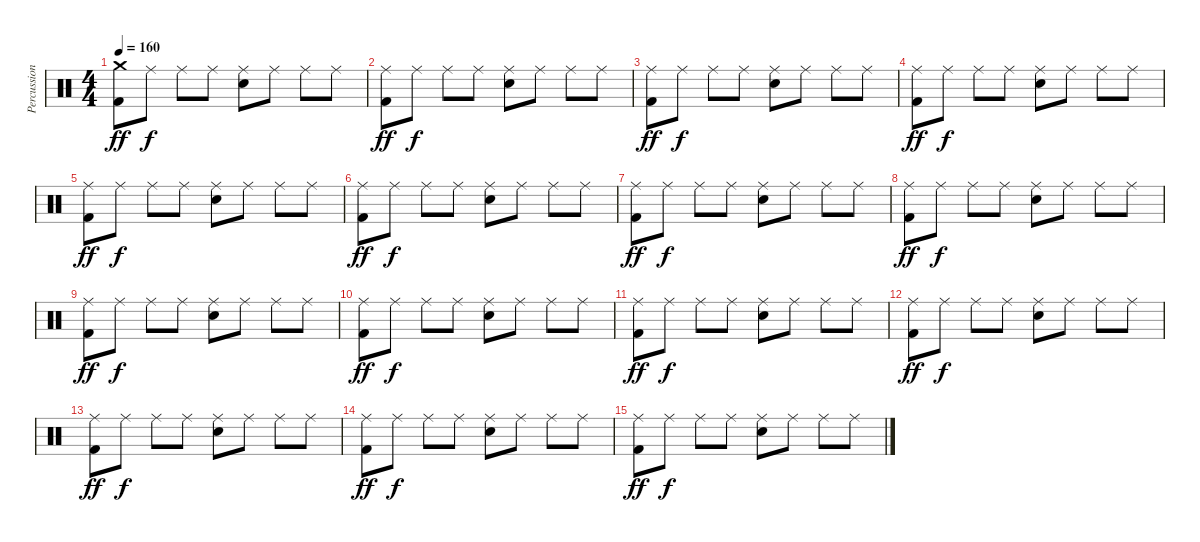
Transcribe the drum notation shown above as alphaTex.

\track ("Percussions" "Percussion") {instrument percussion}
\staff {score}
\articulation defaults
\ts (4 4)
\tempo 160
\clef neutral
\ks c
("Crash medium (hit)" "Kick (hit) 2").8{dy ff} "Ride (middle)".8{dy f} "Ride (middle)".8 "Ride (middle)".8 ("Ride (middle)" "Snare (hit) 2").8 "Ride (middle)".8 "Ride (middle)".8 "Ride (middle)".8 |
("Ride (middle)" "Kick (hit) 2").8{dy ff} "Ride (middle)".8{dy f} "Ride (middle)".8 "Ride (middle)".8 ("Ride (middle)" "Snare (hit) 2").8 "Ride (middle)".8 "Ride (middle)".8 "Ride (middle)".8 |
("Ride (middle)" "Kick (hit) 2").8{dy ff} "Ride (middle)".8{dy f} "Ride (middle)".8 "Ride (middle)".8 ("Ride (middle)" "Snare (hit) 2").8 "Ride (middle)".8 "Ride (middle)".8 "Ride (middle)".8 |
("Ride (middle)" "Kick (hit) 2").8{dy ff} "Ride (middle)".8{dy f} "Ride (middle)".8 "Ride (middle)".8 ("Ride (middle)" "Snare (hit) 2").8 "Ride (middle)".8 "Ride (middle)".8 "Ride (middle)".8 |
("Ride (middle)" "Kick (hit) 2").8{dy ff} "Ride (middle)".8{dy f} "Ride (middle)".8 "Ride (middle)".8 ("Ride (middle)" "Snare (hit) 2").8 "Ride (middle)".8 "Ride (middle)".8 "Ride (middle)".8 |
("Ride (middle)" "Kick (hit) 2").8{dy ff} "Ride (middle)".8{dy f} "Ride (middle)".8 "Ride (middle)".8 ("Ride (middle)" "Snare (hit) 2").8 "Ride (middle)".8 "Ride (middle)".8 "Ride (middle)".8 |
("Ride (middle)" "Kick (hit) 2").8{dy ff} "Ride (middle)".8{dy f} "Ride (middle)".8 "Ride (middle)".8 ("Ride (middle)" "Snare (hit) 2").8 "Ride (middle)".8 "Ride (middle)".8 "Ride (middle)".8 |
("Ride (middle)" "Kick (hit) 2").8{dy ff} "Ride (middle)".8{dy f} "Ride (middle)".8 "Ride (middle)".8 ("Ride (middle)" "Snare (hit) 2").8 "Ride (middle)".8 "Ride (middle)".8 "Ride (middle)".8 |
("Ride (middle)" "Kick (hit) 2").8{dy ff} "Ride (middle)".8{dy f} "Ride (middle)".8 "Ride (middle)".8 ("Ride (middle)" "Snare (hit) 2").8 "Ride (middle)".8 "Ride (middle)".8 "Ride (middle)".8 |
("Ride (middle)" "Kick (hit) 2").8{dy ff} "Ride (middle)".8{dy f} "Ride (middle)".8 "Ride (middle)".8 ("Ride (middle)" "Snare (hit) 2").8 "Ride (middle)".8 "Ride (middle)".8 "Ride (middle)".8 |
("Ride (middle)" "Kick (hit) 2").8{dy ff} "Ride (middle)".8{dy f} "Ride (middle)".8 "Ride (middle)".8 ("Ride (middle)" "Snare (hit) 2").8 "Ride (middle)".8 "Ride (middle)".8 "Ride (middle)".8 |
("Ride (middle)" "Kick (hit) 2").8{dy ff} "Ride (middle)".8{dy f} "Ride (middle)".8 "Ride (middle)".8 ("Ride (middle)" "Snare (hit) 2").8 "Ride (middle)".8 "Ride (middle)".8 "Ride (middle)".8 |
("Ride (middle)" "Kick (hit) 2").8{dy ff} "Ride (middle)".8{dy f} "Ride (middle)".8 "Ride (middle)".8 ("Ride (middle)" "Snare (hit) 2").8 "Ride (middle)".8 "Ride (middle)".8 "Ride (middle)".8 |
("Ride (middle)" "Kick (hit) 2").8{dy ff} "Ride (middle)".8{dy f} "Ride (middle)".8 "Ride (middle)".8 ("Ride (middle)" "Snare (hit) 2").8 "Ride (middle)".8 "Ride (middle)".8 "Ride (middle)".8 |
("Ride (middle)" "Kick (hit) 2").8{dy ff} "Ride (middle)".8{dy f} "Ride (middle)".8 "Ride (middle)".8 ("Ride (middle)" "Snare (hit) 2").8 "Ride (middle)".8 "Ride (middle)".8 "Ride (middle)".8
